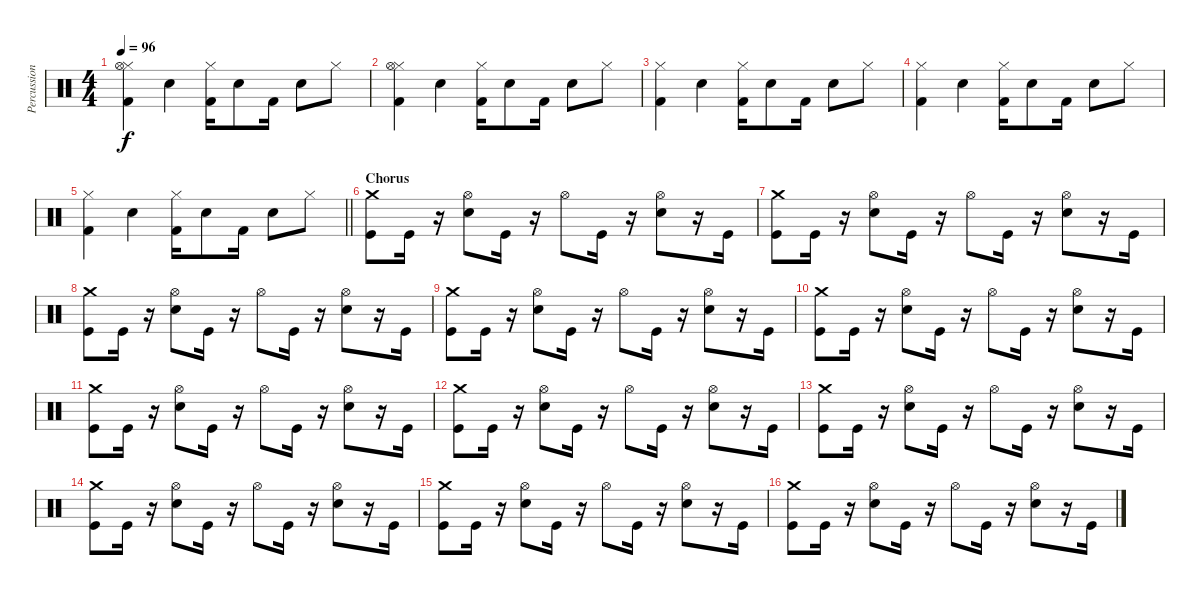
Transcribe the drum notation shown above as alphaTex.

\track ("Percussion" "Percussion") {instrument percussion}
\staff {score}
\articulation defaults
\ts (4 4)
\tempo 96
\clef neutral
\ks c
("Hi-Hat (closed)" "Hi-Hat (open)" "Kick (hit) 2").4{dy f} "Electric Snare (hit)".4 ("Hi-Hat (closed)" "Kick (hit) 2").16 "Electric Snare (hit)".8 "Kick (hit) 2".16 "Electric Snare (hit)".8 "Hi-Hat (closed)".8 |
("Hi-Hat (closed)" "Hi-Hat (open)" "Kick (hit) 2").4 "Electric Snare (hit)".4 ("Hi-Hat (closed)" "Kick (hit) 2").16 "Electric Snare (hit)".8 "Kick (hit) 2".16 "Electric Snare (hit)".8 "Hi-Hat (closed)".8 |
("Hi-Hat (closed)" "Kick (hit) 2").4 "Electric Snare (hit)".4 ("Hi-Hat (closed)" "Kick (hit) 2").16 "Electric Snare (hit)".8 "Kick (hit) 2".16 "Electric Snare (hit)".8 "Hi-Hat (closed)".8 |
("Hi-Hat (closed)" "Kick (hit) 2").4 "Electric Snare (hit)".4 ("Hi-Hat (closed)" "Kick (hit) 2").16 "Electric Snare (hit)".8 "Kick (hit) 2".16 "Electric Snare (hit)".8 "Hi-Hat (closed)".8 |
\barLineRight lightlight
("Hi-Hat (closed)" "Kick (hit) 2").4 "Electric Snare (hit)".4 ("Hi-Hat (closed)" "Kick (hit) 2").16 "Electric Snare (hit)".8 "Kick (hit) 2".16 "Electric Snare (hit)".8 "Hi-Hat (closed)".8 |
\section ("" "Chorus")
("Crash medium (hit)" "Kick (hit)").8 "Kick (hit)".16 r.16 ("Hi-Hat (open)" "Electric Snare (hit)").8 "Kick (hit)".16 r.16 "Hi-Hat (open)".8 "Kick (hit)".16 r.16 ("Hi-Hat (open)" "Electric Snare (hit)").8 r.16 "Kick (hit)".16 |
("Crash medium (hit)" "Kick (hit)").8 "Kick (hit)".16 r.16 ("Hi-Hat (open)" "Electric Snare (hit)").8 "Kick (hit)".16 r.16 "Hi-Hat (open)".8 "Kick (hit)".16 r.16 ("Hi-Hat (open)" "Electric Snare (hit)").8 r.16 "Kick (hit)".16 |
("Crash medium (hit)" "Kick (hit)").8 "Kick (hit)".16 r.16 ("Hi-Hat (open)" "Electric Snare (hit)").8 "Kick (hit)".16 r.16 "Hi-Hat (open)".8 "Kick (hit)".16 r.16 ("Hi-Hat (open)" "Electric Snare (hit)").8 r.16 "Kick (hit)".16 |
("Crash medium (hit)" "Kick (hit)").8 "Kick (hit)".16 r.16 ("Hi-Hat (open)" "Electric Snare (hit)").8 "Kick (hit)".16 r.16 "Hi-Hat (open)".8 "Kick (hit)".16 r.16 ("Hi-Hat (open)" "Electric Snare (hit)").8 r.16 "Kick (hit)".16 |
("Crash medium (hit)" "Kick (hit)").8 "Kick (hit)".16 r.16 ("Hi-Hat (open)" "Electric Snare (hit)").8 "Kick (hit)".16 r.16 "Hi-Hat (open)".8 "Kick (hit)".16 r.16 ("Hi-Hat (open)" "Electric Snare (hit)").8 r.16 "Kick (hit)".16 |
("Crash medium (hit)" "Kick (hit)").8 "Kick (hit)".16 r.16 ("Hi-Hat (open)" "Electric Snare (hit)").8 "Kick (hit)".16 r.16 "Hi-Hat (open)".8 "Kick (hit)".16 r.16 ("Hi-Hat (open)" "Electric Snare (hit)").8 r.16 "Kick (hit)".16 |
("Crash medium (hit)" "Kick (hit)").8 "Kick (hit)".16 r.16 ("Hi-Hat (open)" "Electric Snare (hit)").8 "Kick (hit)".16 r.16 "Hi-Hat (open)".8 "Kick (hit)".16 r.16 ("Hi-Hat (open)" "Electric Snare (hit)").8 r.16 "Kick (hit)".16 |
("Crash medium (hit)" "Kick (hit)").8 "Kick (hit)".16 r.16 ("Hi-Hat (open)" "Electric Snare (hit)").8 "Kick (hit)".16 r.16 "Hi-Hat (open)".8 "Kick (hit)".16 r.16 ("Hi-Hat (open)" "Electric Snare (hit)").8 r.16 "Kick (hit)".16 |
("Crash medium (hit)" "Kick (hit)").8 "Kick (hit)".16 r.16 ("Hi-Hat (open)" "Electric Snare (hit)").8 "Kick (hit)".16 r.16 "Hi-Hat (open)".8 "Kick (hit)".16 r.16 ("Hi-Hat (open)" "Electric Snare (hit)").8 r.16 "Kick (hit)".16 |
("Crash medium (hit)" "Kick (hit)").8 "Kick (hit)".16 r.16 ("Hi-Hat (open)" "Electric Snare (hit)").8 "Kick (hit)".16 r.16 "Hi-Hat (open)".8 "Kick (hit)".16 r.16 ("Hi-Hat (open)" "Electric Snare (hit)").8 r.16 "Kick (hit)".16 |
("Crash medium (hit)" "Kick (hit)").8 "Kick (hit)".16 r.16 ("Hi-Hat (open)" "Electric Snare (hit)").8 "Kick (hit)".16 r.16 "Hi-Hat (open)".8 "Kick (hit)".16 r.16 ("Hi-Hat (open)" "Electric Snare (hit)").8 r.16 "Kick (hit)".16
